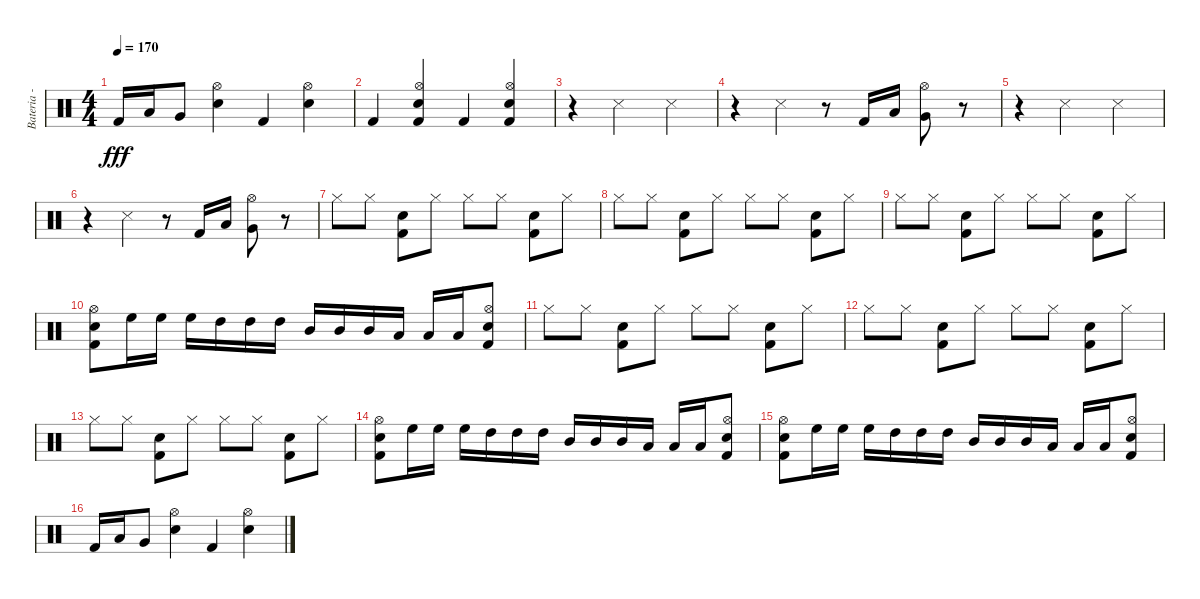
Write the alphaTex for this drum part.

\track ("Bateria - Larzon" "Bateria - ") {instrument percussion}
\staff {score}
\articulation defaults
\ts (4 4)
\tempo 170
\clef neutral
\ks c "Kick (hit) 2".16{dy fff} "Low Floor Tom (hit)".16 "Very Low Tom (hit)".8
("Hi-Hat (open)" "Snare (hit) 2").4 "Kick (hit) 2".4 ("Hi-Hat (open)" "Snare (hit) 2").4 |
"Kick (hit) 2".4 ("Hi-Hat (open)" "Snare (hit) 2" "Kick (hit) 2").4 "Kick (hit) 2".4 ("Hi-Hat (open)" "Snare (hit) 2" "Kick (hit) 2").4 |
r.4 "Snare (side stick) 3".2 "Snare (side stick) 3".4 |
r.4 "Snare (side stick) 3".4 r.8 "Kick (hit) 2".16 "Low Floor Tom (hit)".16 ("Hi-Hat (open)" "Very Low Tom (hit)").8 r.8 |
r.4 "Snare (side stick) 3".2 "Snare (side stick) 3".4 |
r.4 "Snare (side stick) 3".4 r.8 "Kick (hit) 2".16 "Low Floor Tom (hit)".16 ("Hi-Hat (open)" "Very Low Tom (hit)").8 r.8 |
"Hi-Hat (closed)".8 "Hi-Hat (closed)".8 ("Snare (hit) 2" "Kick (hit) 2").8 "Hi-Hat (closed)".8 "Hi-Hat (closed)".8 "Hi-Hat (closed)".8 ("Snare (hit) 2" "Kick (hit) 2").8 "Hi-Hat (closed)".8 |
"Hi-Hat (closed)".8 "Hi-Hat (closed)".8 ("Snare (hit) 2" "Kick (hit) 2").8 "Hi-Hat (closed)".8 "Hi-Hat (closed)".8 "Hi-Hat (closed)".8 ("Snare (hit) 2" "Kick (hit) 2").8 "Hi-Hat (closed)".8 |
"Hi-Hat (closed)".8 "Hi-Hat (closed)".8 ("Snare (hit) 2" "Kick (hit) 2").8 "Hi-Hat (closed)".8 "Hi-Hat (closed)".8 "Hi-Hat (closed)".8 ("Snare (hit) 2" "Kick (hit) 2").8 "Hi-Hat (closed)".8 |
("Hi-Hat (open)" "Snare (hit) 2" "Kick (hit) 2").8 "High Floor Tom (hit)".16 "High Floor Tom (hit)".16 "High Floor Tom (hit)".16 "High Tom (hit)".16 "High Tom (hit)".16 "High Tom (hit)".16 "Mid Tom (hit)".16 "Mid Tom (hit)".16 "Mid Tom (hit)".16 "Low Tom (hit)".16 "Low Tom (hit)".16 "Low Tom (hit)".16 ("Hi-Hat (open)" "Snare (hit) 2" "Kick (hit) 2").8 |
"Hi-Hat (closed)".8 "Hi-Hat (closed)".8 ("Snare (hit) 2" "Kick (hit) 2").8 "Hi-Hat (closed)".8 "Hi-Hat (closed)".8 "Hi-Hat (closed)".8 ("Snare (hit) 2" "Kick (hit) 2").8 "Hi-Hat (closed)".8 |
"Hi-Hat (closed)".8 "Hi-Hat (closed)".8 ("Snare (hit) 2" "Kick (hit) 2").8 "Hi-Hat (closed)".8 "Hi-Hat (closed)".8 "Hi-Hat (closed)".8 ("Snare (hit) 2" "Kick (hit) 2").8 "Hi-Hat (closed)".8 |
"Hi-Hat (closed)".8 "Hi-Hat (closed)".8 ("Snare (hit) 2" "Kick (hit) 2").8 "Hi-Hat (closed)".8 "Hi-Hat (closed)".8 "Hi-Hat (closed)".8 ("Snare (hit) 2" "Kick (hit) 2").8 "Hi-Hat (closed)".8 |
("Hi-Hat (open)" "Snare (hit) 2" "Kick (hit) 2").8 "High Floor Tom (hit)".16 "High Floor Tom (hit)".16 "High Floor Tom (hit)".16 "High Tom (hit)".16 "High Tom (hit)".16 "High Tom (hit)".16 "Mid Tom (hit)".16 "Mid Tom (hit)".16 "Mid Tom (hit)".16 "Low Tom (hit)".16 "Low Tom (hit)".16 "Low Tom (hit)".16 ("Hi-Hat (open)" "Snare (hit) 2" "Kick (hit) 2").8 |
("Hi-Hat (open)" "Snare (hit) 2" "Kick (hit) 2").8 "High Floor Tom (hit)".16 "High Floor Tom (hit)".16 "High Floor Tom (hit)".16 "High Tom (hit)".16 "High Tom (hit)".16 "High Tom (hit)".16 "Mid Tom (hit)".16 "Mid Tom (hit)".16 "Mid Tom (hit)".16 "Low Tom (hit)".16 "Low Tom (hit)".16 "Low Tom (hit)".16 ("Hi-Hat (open)" "Snare (hit) 2" "Kick (hit) 2").8 |
"Kick (hit) 2".16 "Low Floor Tom (hit)".16 "Very Low Tom (hit)".8 ("Hi-Hat (open)" "Snare (hit) 2").4 "Kick (hit) 2".4 ("Hi-Hat (open)" "Snare (hit) 2").4
